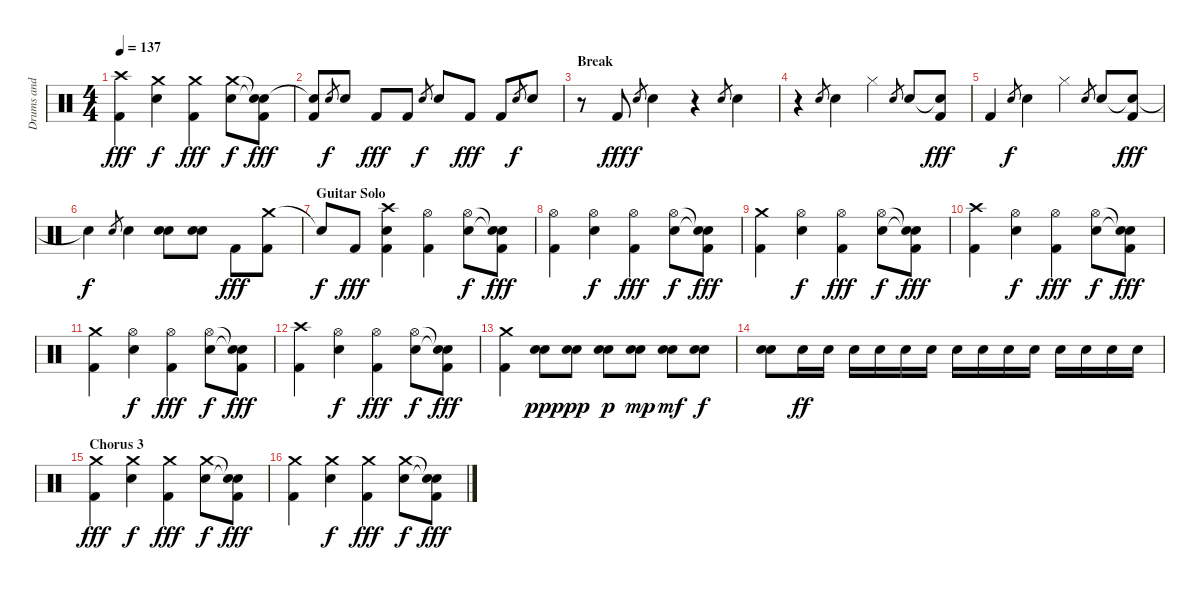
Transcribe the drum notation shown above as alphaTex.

\track ("Drums and Percussion" "Drums and ") {instrument percussion}
\staff {score}
\articulation defaults
\ts (4 4)
\tempo 137
\clef neutral
\ks c
("Crash high (hit)" "Kick (hit) 2").4{dy fff} ("Crash medium (hit)" "Electric Snare (hit)").4{dy f} ("Crash medium (hit)" "Kick (hit) 2").4{dy fff} ("Crash medium (hit)" "Electric Snare (hit)").8{dy f} ("Snare (hit)"{t} "Snare (hit)"{t} "Kick (hit) 2").8{dy fff} |
("Snare (hit)"{t} "Kick (hit) 2").8 "Electric Snare (hit)".8{gr dy f} "Electric Snare (hit)".8 "Kick (hit) 2".8{dy fff} "Kick (hit) 2".8 "Electric Snare (hit)".8{gr dy f} "Electric Snare (hit)".8 "Kick (hit) 2".8{dy fff} "Kick (hit) 2".8 "Electric Snare (hit)".8{gr dy f} "Electric Snare (hit)".8 |
\section ("" "Break")
r.8 "Kick (hit) 2".8{dy fff} "Electric Snare (hit)".8{gr dy f} "Electric Snare (hit)".4 r.4 "Electric Snare (hit)".8{gr} "Electric Snare (hit)".4 |
r.4 "Electric Snare (hit)".8{gr} "Electric Snare (hit)".4 "Hi-Hat (closed)".4 "Electric Snare (hit)".8{gr} "Electric Snare (hit)".8 ("Snare (hit)"{t} "Kick (hit) 2").8{dy fff} |
"Kick (hit) 2".4 "Electric Snare (hit)".8{gr dy f} "Electric Snare (hit)".4 "Hi-Hat (closed)".4 "Electric Snare (hit)".8{gr} "Electric Snare (hit)".8 ("Snare (hit)"{t} "Kick (hit) 2").8{dy fff} |
"Snare (hit)"{t}.4{dy f} "Electric Snare (hit)".8{gr} "Electric Snare (hit)".4 ("Electric Snare (hit)" "Electric Snare (hit)").8 ("Electric Snare (hit)" "Electric Snare (hit)").8 "Kick (hit) 2".8{dy fff} ("Crash medium (hit)" "Kick (hit) 2").8 |
\section ("" "Guitar Solo")
"Snare (hit)"{t}.8{dy f} "Kick (hit) 2".8{dy fff} ("Crash high (hit)" "Electric Snare (hit)" "Kick (hit) 2").4 ("Hi-Hat (open)" "Kick (hit) 2").4 ("Hi-Hat (open)" "Electric Snare (hit)").8{dy f} ("Snare (hit)"{t} "Snare (hit)"{t} "Kick (hit) 2").8{dy fff} |
("Hi-Hat (open)" "Kick (hit) 2").4 ("Hi-Hat (open)" "Electric Snare (hit)").4{dy f} ("Hi-Hat (open)" "Kick (hit) 2").4{dy fff} ("Hi-Hat (open)" "Electric Snare (hit)").8{dy f} ("Snare (hit)"{t} "Snare (hit)"{t} "Kick (hit) 2").8{dy fff} |
("Crash medium (hit)" "Kick (hit) 2").4 ("Hi-Hat (open)" "Electric Snare (hit)").4{dy f} ("Hi-Hat (open)" "Kick (hit) 2").4{dy fff} ("Hi-Hat (open)" "Electric Snare (hit)").8{dy f} ("Snare (hit)"{t} "Snare (hit)"{t} "Kick (hit) 2").8{dy fff} |
("Crash high (hit)" "Kick (hit) 2").4 ("Hi-Hat (open)" "Electric Snare (hit)").4{dy f} ("Hi-Hat (open)" "Kick (hit) 2").4{dy fff} ("Hi-Hat (open)" "Electric Snare (hit)").8{dy f} ("Snare (hit)"{t} "Snare (hit)"{t} "Kick (hit) 2").8{dy fff} |
("Crash medium (hit)" "Kick (hit) 2").4 ("Hi-Hat (open)" "Electric Snare (hit)").4{dy f} ("Hi-Hat (open)" "Kick (hit) 2").4{dy fff} ("Hi-Hat (open)" "Electric Snare (hit)").8{dy f} ("Snare (hit)"{t} "Snare (hit)"{t} "Kick (hit) 2").8{dy fff} |
("Crash high (hit)" "Kick (hit) 2").4 ("Hi-Hat (open)" "Electric Snare (hit)").4{dy f} ("Hi-Hat (open)" "Kick (hit) 2").4{dy fff} ("Hi-Hat (open)" "Electric Snare (hit)").8{dy f} ("Snare (hit)"{t} "Snare (hit)"{t} "Kick (hit) 2").8{dy fff} |
("Crash medium (hit)" "Kick (hit) 2").4 ("Electric Snare (hit)" "Electric Snare (hit)").8{dy ppp} ("Electric Snare (hit)" "Electric Snare (hit)").8{dy pp} ("Electric Snare (hit)" "Electric Snare (hit)").8{dy p} ("Electric Snare (hit)" "Electric Snare (hit)").8{dy mp} ("Electric Snare (hit)" "Electric Snare (hit)").8{dy mf} ("Electric Snare (hit)" "Electric Snare (hit)").8{dy f} |
("Electric Snare (hit)" "Electric Snare (hit)").8 "Electric Snare (hit)".16{dy ff} "Electric Snare (hit)".16 "Electric Snare (hit)".16 "Electric Snare (hit)".16 "Electric Snare (hit)".16 "Electric Snare (hit)".16 "Electric Snare (hit)".16 "Electric Snare (hit)".16 "Electric Snare (hit)".16 "Electric Snare (hit)".16 "Electric Snare (hit)".16 "Electric Snare (hit)".16 "Electric Snare (hit)".16 "Electric Snare (hit)".16 |
\section ("" "Chorus 3")
("Crash medium (hit)" "Kick (hit) 2").4{dy fff} ("Crash medium (hit)" "Electric Snare (hit)").4{dy f} ("Crash medium (hit)" "Kick (hit) 2").4{dy fff} ("Crash medium (hit)" "Electric Snare (hit)").8{dy f} ("Snare (hit)"{t} "Snare (hit)"{t} "Kick (hit) 2").8{dy fff} |
("Crash medium (hit)" "Kick (hit) 2").4 ("Crash medium (hit)" "Electric Snare (hit)").4{dy f} ("Crash medium (hit)" "Kick (hit) 2").4{dy fff} ("Crash medium (hit)" "Electric Snare (hit)").8{dy f} ("Snare (hit)"{t} "Snare (hit)"{t} "Kick (hit) 2").8{dy fff}
